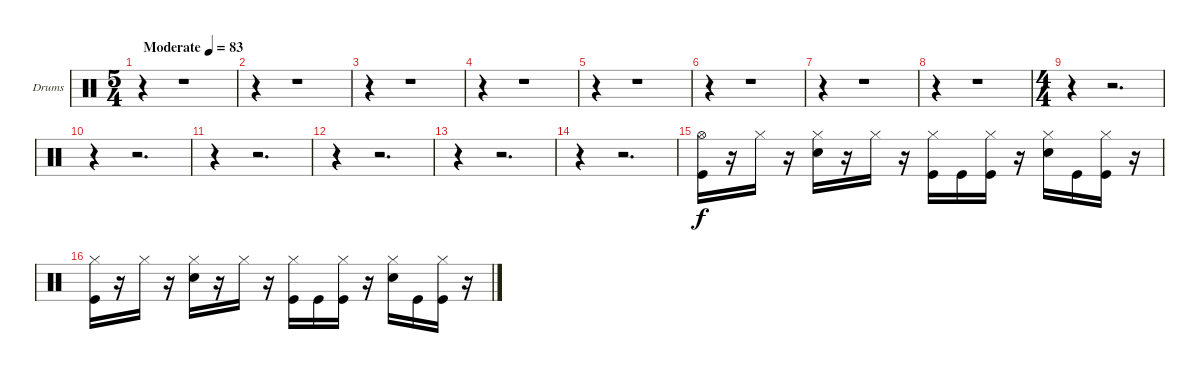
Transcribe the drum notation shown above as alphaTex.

\bracketExtendMode groupsimilarinstruments
\firstSystemTrackNameOrientation horizontal
\otherSystemsTrackNameOrientation horizontal
\track ("Drumkit" "Drums") {instrument percussion}
\staff {score}
\articulation defaults
\ts (5 4)
\beaming (8 6 4)
\tempo (83 "Moderate")
\clef neutral
\ks c
r.4{dy f} r.1 |
r.4 r.1 |
r.4 r.1 |
r.4 r.1 |
r.4 r.1 |
r.4 r.1 |
r.4 r.1 |
r.4 r.1 |
\ts (4 4)
\beaming (8 2 2 2 2)
r.4 r.2{d} |
r.4 r.2{d} |
r.4 r.2{d} |
r.4 r.2{d} |
r.4 r.2{d} |
r.4 r.2{d} |
("Hi-Hat (open)" "Kick (hit)").16 r.16 "Hi-Hat (closed)".16 r.16 ("Hi-Hat (closed)" "Snare (hit) 2").16 r.16 "Hi-Hat (closed)".16 r.16 ("Hi-Hat (closed)" "Kick (hit)").16 "Kick (hit)".16 ("Hi-Hat (closed)" "Kick (hit)").16 r.16 ("Hi-Hat (closed)" "Snare (hit) 2").16 "Kick (hit)".16 ("Hi-Hat (closed)" "Kick (hit)").16 r.16 |
("Hi-Hat (closed)" "Kick (hit)").16 r.16 "Hi-Hat (closed)".16 r.16 ("Hi-Hat (closed)" "Snare (hit) 2").16 r.16 "Hi-Hat (closed)".16 r.16 ("Hi-Hat (closed)" "Kick (hit)").16 "Kick (hit)".16 ("Hi-Hat (closed)" "Kick (hit)").16 r.16 ("Hi-Hat (closed)" "Snare (hit) 2").16 "Kick (hit)".16 ("Hi-Hat (closed)" "Kick (hit)").16 r.16
